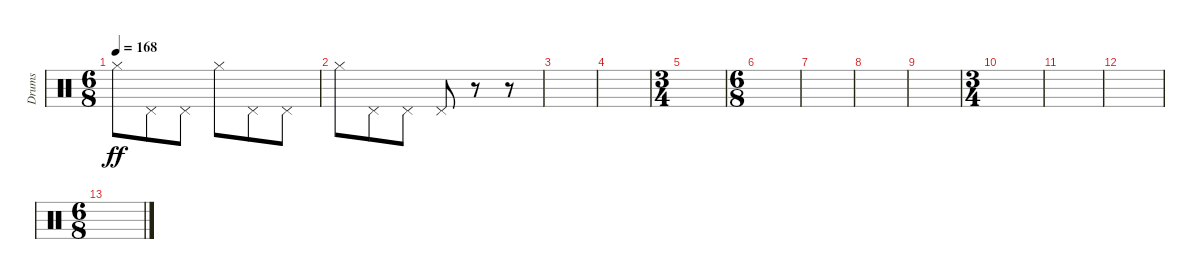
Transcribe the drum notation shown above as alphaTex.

\track ("Drums" "Drums") {instrument percussion}
\staff {score}
\articulation defaults
\ts (6 8)
\tempo 168
\clef neutral
\ks c "Hi-Hat (closed)".8{dy ff} "Pedal Hi-Hat (hit)".8 "Pedal Hi-Hat (hit)".8 "Hi-Hat (closed)".8 "Pedal Hi-Hat (hit)".8 "Pedal Hi-Hat (hit)".8
|
"Hi-Hat (closed)".8 "Pedal Hi-Hat (hit)".8 "Pedal Hi-Hat (hit)".8 "Pedal Hi-Hat (hit)".8 r.8 r.8 |
|
|
\ts (3 4)
|
\ts (6 8)
|
|
|
|
\ts (3 4)
|
|
|
\ts (6 8)
